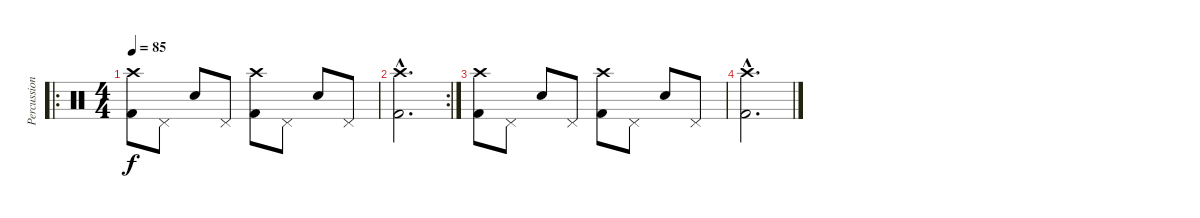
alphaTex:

\track ("Percussion" "Percussion") {instrument percussion}
\staff {score}
\articulation defaults
\ro
\ts (4 4)
\tempo 85
\clef neutral
\ks c
("Crash high (hit)" "Kick (hit) 2").8{dy f} "Pedal Hi-Hat (hit)".8 "Snare (hit) 2".8 "Pedal Hi-Hat (hit)".8 ("Crash high (hit)" "Kick (hit) 2").8 "Pedal Hi-Hat (hit)".8 "Snare (hit) 2".8 "Pedal Hi-Hat (hit)".8 |
\rc 2
("Crash high (hit)"{hac} "Kick (hit) 2"{hac}).2{d} |
("Crash high (hit)" "Kick (hit) 2").8 "Pedal Hi-Hat (hit)".8 "Snare (hit) 2".8 "Pedal Hi-Hat (hit)".8 ("Crash high (hit)" "Kick (hit) 2").8 "Pedal Hi-Hat (hit)".8 "Snare (hit) 2".8 "Pedal Hi-Hat (hit)".8 |
("Crash high (hit)"{hac} "Kick (hit) 2"{hac}).2{d}
